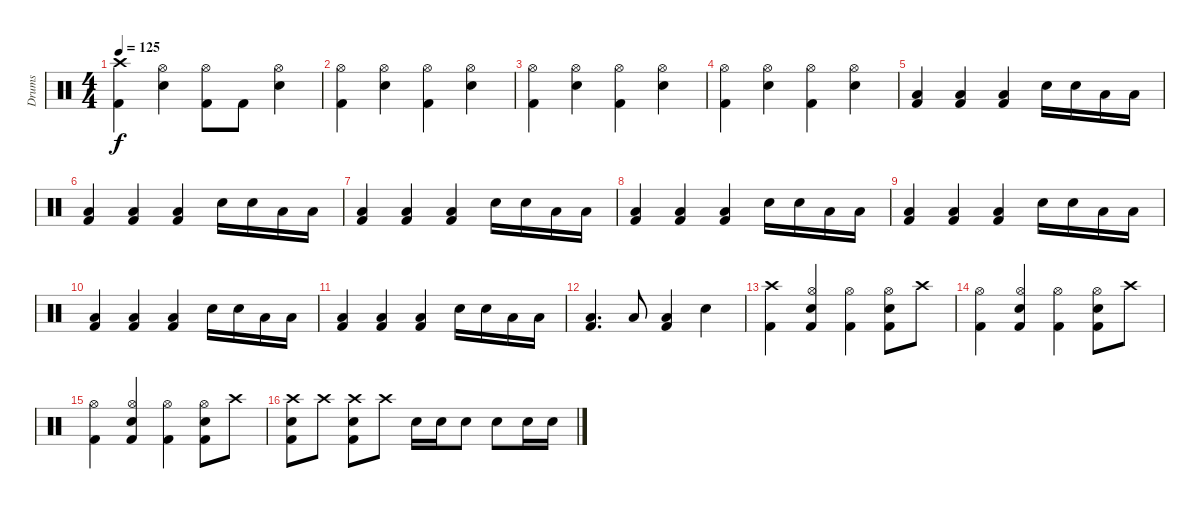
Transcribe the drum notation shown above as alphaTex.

\track ("Drums" "Drums") {instrument percussion}
\staff {score}
\articulation defaults
\ts (4 4)
\tempo 125
\clef neutral
\ks c
("Crash high (hit)" "Kick (hit) 2").4{dy f} ("Hi-Hat (open)" "Snare (hit) 2").4 ("Hi-Hat (open)" "Kick (hit) 2").8 "Kick (hit) 2".8 ("Hi-Hat (open)" "Snare (hit) 2").4 |
("Hi-Hat (open)" "Kick (hit) 2").4 ("Hi-Hat (open)" "Snare (hit) 2").4 ("Hi-Hat (open)" "Kick (hit) 2").4 ("Hi-Hat (open)" "Snare (hit) 2").4 |
("Hi-Hat (open)" "Kick (hit) 2").4 ("Hi-Hat (open)" "Snare (hit) 2").4 ("Hi-Hat (open)" "Kick (hit) 2").4 ("Hi-Hat (open)" "Snare (hit) 2").4 |
("Hi-Hat (open)" "Kick (hit) 2").4 ("Hi-Hat (open)" "Snare (hit) 2").4 ("Hi-Hat (open)" "Kick (hit) 2").4 ("Hi-Hat (open)" "Snare (hit) 2").4 |
("Low Floor Tom (hit)" "Kick (hit) 2").4 ("Low Floor Tom (hit)" "Kick (hit) 2").4 ("Low Floor Tom (hit)" "Kick (hit) 2").4 "Snare (hit) 2".16 "Snare (hit) 2".16 "Low Tom (hit)".16 "Low Tom (hit)".16 |
("Low Floor Tom (hit)" "Kick (hit) 2").4 ("Low Floor Tom (hit)" "Kick (hit) 2").4 ("Low Floor Tom (hit)" "Kick (hit) 2").4 "Snare (hit) 2".16 "Snare (hit) 2".16 "Low Tom (hit)".16 "Low Tom (hit)".16 |
("Low Floor Tom (hit)" "Kick (hit) 2").4 ("Low Floor Tom (hit)" "Kick (hit) 2").4 ("Low Floor Tom (hit)" "Kick (hit) 2").4 "Snare (hit) 2".16 "Snare (hit) 2".16 "Low Tom (hit)".16 "Low Tom (hit)".16 |
("Low Floor Tom (hit)" "Kick (hit) 2").4 ("Low Floor Tom (hit)" "Kick (hit) 2").4 ("Low Floor Tom (hit)" "Kick (hit) 2").4 "Snare (hit) 2".16 "Snare (hit) 2".16 "Low Tom (hit)".16 "Low Tom (hit)".16 |
("Low Floor Tom (hit)" "Kick (hit) 2").4 ("Low Floor Tom (hit)" "Kick (hit) 2").4 ("Low Floor Tom (hit)" "Kick (hit) 2").4 "Snare (hit) 2".16 "Snare (hit) 2".16 "Low Tom (hit)".16 "Low Tom (hit)".16 |
("Low Floor Tom (hit)" "Kick (hit) 2").4 ("Low Floor Tom (hit)" "Kick (hit) 2").4 ("Low Floor Tom (hit)" "Kick (hit) 2").4 "Snare (hit) 2".16 "Snare (hit) 2".16 "Low Tom (hit)".16 "Low Tom (hit)".16 |
("Low Floor Tom (hit)" "Kick (hit) 2").4 ("Low Floor Tom (hit)" "Kick (hit) 2").4 ("Low Floor Tom (hit)" "Kick (hit) 2").4 "Snare (hit) 2".16 "Snare (hit) 2".16 "Low Tom (hit)".16 "Low Tom (hit)".16 |
("Low Floor Tom (hit)" "Kick (hit) 2").4{d} "Low Tom (hit)".8 ("Low Floor Tom (hit)" "Kick (hit) 2").4 "Snare (hit) 2".4 |
("Crash high (hit)" "Kick (hit) 2").4 ("Hi-Hat (open)" "Snare (hit) 2" "Kick (hit) 2").4 ("Hi-Hat (open)" "Kick (hit) 2").4 ("Hi-Hat (open)" "Snare (hit) 2" "Kick (hit) 2").8 "Crash high (hit)".8 |
("Hi-Hat (open)" "Kick (hit) 2").4 ("Hi-Hat (open)" "Snare (hit) 2" "Kick (hit) 2").4 ("Hi-Hat (open)" "Kick (hit) 2").4 ("Hi-Hat (open)" "Snare (hit) 2" "Kick (hit) 2").8 "Crash high (hit)".8 |
("Hi-Hat (open)" "Kick (hit) 2").4 ("Hi-Hat (open)" "Snare (hit) 2" "Kick (hit) 2").4 ("Hi-Hat (open)" "Kick (hit) 2").4 ("Hi-Hat (open)" "Snare (hit) 2" "Kick (hit) 2").8 "Crash high (hit)".8 |
("Crash high (hit)" "Snare (hit) 2" "Kick (hit) 2").8 "Crash high (hit)".8 ("Crash high (hit)" "Snare (hit) 2" "Kick (hit) 2").8 "Crash high (hit)".8 "Snare (hit) 2".16 "Snare (hit) 2".16 "Snare (hit) 2".8 "Snare (hit) 2".8 "Snare (hit) 2".16 "Snare (hit) 2".16
